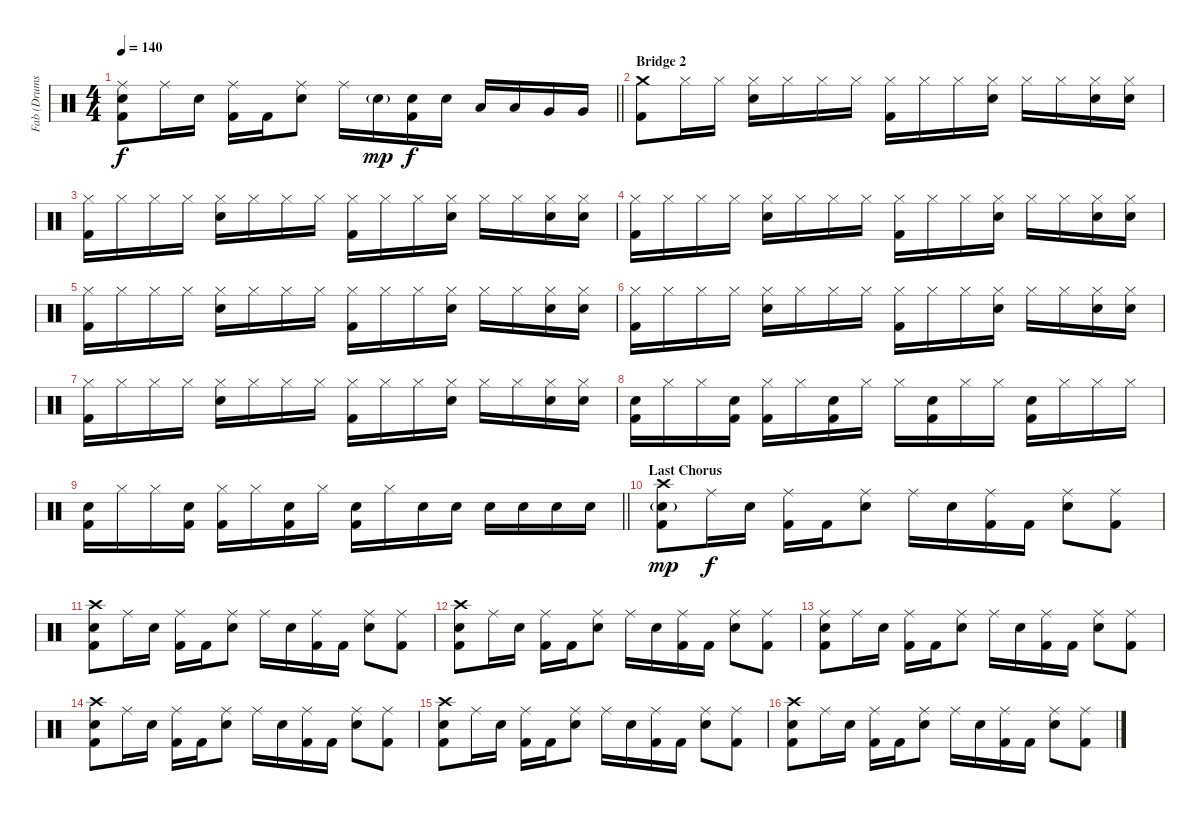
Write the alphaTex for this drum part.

\track ("Fab (Drums)" "Fab (Drums") {instrument percussion}
\staff {score}
\articulation defaults
\ts (4 4)
\tempo 140
\clef neutral
\barLineRight lightlight
\ks c
("Ride (middle)" "Snare (hit) 2" "Kick (hit) 2").8{dy f} "Ride (middle)".16 "Snare (hit) 2".16 ("Ride (middle)" "Kick (hit) 2").16 "Kick (hit) 2".16 ("Ride (middle)" "Snare (hit) 2").8 "Ride (middle)".16 "Snare (hit) 2"{g}.16{dy mp} ("Snare (hit) 2" "Kick (hit) 2").16{dy f} "Snare (hit) 2".16 "Low Tom (hit)".16 "Low Tom (hit)".16 "Very Low Tom (hit)".16 "Very Low Tom (hit)".16 |
\section ("" "Bridge 2")
("Crash medium (hit)" "Kick (hit) 2").8 "Hi-Hat (closed)".16 "Hi-Hat (closed)".16 ("Hi-Hat (closed)" "Snare (hit) 2").16 "Hi-Hat (closed)".16 "Hi-Hat (closed)".16 "Hi-Hat (closed)".16 ("Hi-Hat (closed)" "Kick (hit) 2").16 "Hi-Hat (closed)".16 "Hi-Hat (closed)".16 ("Hi-Hat (closed)" "Snare (hit) 2").16 "Hi-Hat (closed)".16 "Hi-Hat (closed)".16 ("Hi-Hat (closed)" "Snare (hit) 2").16 ("Hi-Hat (closed)" "Snare (hit) 2").16 |
("Hi-Hat (closed)" "Kick (hit) 2").16 "Hi-Hat (closed)".16 "Hi-Hat (closed)".16 "Hi-Hat (closed)".16 ("Hi-Hat (closed)" "Snare (hit) 2").16 "Hi-Hat (closed)".16 "Hi-Hat (closed)".16 "Hi-Hat (closed)".16 ("Hi-Hat (closed)" "Kick (hit) 2").16 "Hi-Hat (closed)".16 "Hi-Hat (closed)".16 ("Hi-Hat (closed)" "Snare (hit) 2").16 "Hi-Hat (closed)".16 "Hi-Hat (closed)".16 ("Hi-Hat (closed)" "Snare (hit) 2").16 ("Hi-Hat (closed)" "Snare (hit) 2").16 |
("Hi-Hat (closed)" "Kick (hit) 2").16 "Hi-Hat (closed)".16 "Hi-Hat (closed)".16 "Hi-Hat (closed)".16 ("Hi-Hat (closed)" "Snare (hit) 2").16 "Hi-Hat (closed)".16 "Hi-Hat (closed)".16 "Hi-Hat (closed)".16 ("Hi-Hat (closed)" "Kick (hit) 2").16 "Hi-Hat (closed)".16 "Hi-Hat (closed)".16 ("Hi-Hat (closed)" "Snare (hit) 2").16 "Hi-Hat (closed)".16 "Hi-Hat (closed)".16 ("Hi-Hat (closed)" "Snare (hit) 2").16 ("Hi-Hat (closed)" "Snare (hit) 2").16 |
("Hi-Hat (closed)" "Kick (hit) 2").16 "Hi-Hat (closed)".16 "Hi-Hat (closed)".16 "Hi-Hat (closed)".16 ("Hi-Hat (closed)" "Snare (hit) 2").16 "Hi-Hat (closed)".16 "Hi-Hat (closed)".16 "Hi-Hat (closed)".16 ("Hi-Hat (closed)" "Kick (hit) 2").16 "Hi-Hat (closed)".16 "Hi-Hat (closed)".16 ("Hi-Hat (closed)" "Snare (hit) 2").16 "Hi-Hat (closed)".16 "Hi-Hat (closed)".16 ("Hi-Hat (closed)" "Snare (hit) 2").16 ("Hi-Hat (closed)" "Snare (hit) 2").16 |
("Hi-Hat (closed)" "Kick (hit) 2").16 "Hi-Hat (closed)".16 "Hi-Hat (closed)".16 "Hi-Hat (closed)".16 ("Hi-Hat (closed)" "Snare (hit) 2").16 "Hi-Hat (closed)".16 "Hi-Hat (closed)".16 "Hi-Hat (closed)".16 ("Hi-Hat (closed)" "Kick (hit) 2").16 "Hi-Hat (closed)".16 "Hi-Hat (closed)".16 ("Hi-Hat (closed)" "Snare (hit) 2").16 "Hi-Hat (closed)".16 "Hi-Hat (closed)".16 ("Hi-Hat (closed)" "Snare (hit) 2").16 ("Hi-Hat (closed)" "Snare (hit) 2").16 |
("Hi-Hat (closed)" "Kick (hit) 2").16 "Hi-Hat (closed)".16 "Hi-Hat (closed)".16 "Hi-Hat (closed)".16 ("Hi-Hat (closed)" "Snare (hit) 2").16 "Hi-Hat (closed)".16 "Hi-Hat (closed)".16 "Hi-Hat (closed)".16 ("Hi-Hat (closed)" "Kick (hit) 2").16 "Hi-Hat (closed)".16 "Hi-Hat (closed)".16 ("Hi-Hat (closed)" "Snare (hit) 2").16 "Hi-Hat (closed)".16 "Hi-Hat (closed)".16 ("Hi-Hat (closed)" "Snare (hit) 2").16 ("Hi-Hat (closed)" "Snare (hit) 2").16 |
("Snare (hit) 2" "Kick (hit) 2").16 "Hi-Hat (closed)".16 "Hi-Hat (closed)".16 ("Snare (hit) 2" "Kick (hit) 2").16 ("Hi-Hat (closed)" "Kick (hit) 2").16 "Hi-Hat (closed)".16 ("Snare (hit) 2" "Kick (hit) 2").16 "Hi-Hat (closed)".16 "Hi-Hat (closed)".16 ("Snare (hit) 2" "Kick (hit) 2").16 "Hi-Hat (closed)".16 "Hi-Hat (closed)".16 ("Snare (hit) 2" "Kick (hit) 2").16 "Hi-Hat (closed)".16 "Hi-Hat (closed)".16 "Hi-Hat (closed)".16 |
\barLineRight lightlight
("Snare (hit) 2" "Kick (hit) 2").16 "Hi-Hat (closed)".16 "Hi-Hat (closed)".16 ("Snare (hit) 2" "Kick (hit) 2").16 ("Hi-Hat (closed)" "Kick (hit) 2").16 "Hi-Hat (closed)".16 ("Snare (hit) 2" "Kick (hit) 2").16 "Hi-Hat (closed)".16 ("Snare (hit) 2" "Kick (hit) 2").16 "Hi-Hat (closed)".16 "Snare (hit) 2".16 "Snare (hit) 2".16 "Snare (hit) 2".16 "Snare (hit) 2".16 "Snare (hit) 2".16 "Snare (hit) 2".16 |
\section ("" "Last Chorus")
("Crash high (hit)" "Snare (hit) 2"{g} "Kick (hit) 2").8{dy mp} "Ride (middle)".16{dy f} "Snare (hit) 2".16 ("Ride (middle)" "Kick (hit) 2").16 "Kick (hit) 2".16 ("Ride (middle)" "Snare (hit) 2").8 "Ride (middle)".16 "Snare (hit) 2".16 ("Ride (middle)" "Kick (hit) 2").16 "Kick (hit) 2".16 ("Ride (middle)" "Snare (hit) 2").8 ("Ride (middle)" "Kick (hit) 2").8 |
("Crash high (hit)" "Snare (hit) 2" "Kick (hit) 2").8 "Ride (middle)".16 "Snare (hit) 2".16 ("Ride (middle)" "Kick (hit) 2").16 "Kick (hit) 2".16 ("Ride (middle)" "Snare (hit) 2").8 "Ride (middle)".16 "Snare (hit) 2".16 ("Ride (middle)" "Kick (hit) 2").16 "Kick (hit) 2".16 ("Ride (middle)" "Snare (hit) 2").8 ("Ride (middle)" "Kick (hit) 2").8 |
("Crash high (hit)" "Snare (hit) 2" "Kick (hit) 2").8 "Ride (middle)".16 "Snare (hit) 2".16 ("Ride (middle)" "Kick (hit) 2").16 "Kick (hit) 2".16 ("Ride (middle)" "Snare (hit) 2").8 "Ride (middle)".16 "Snare (hit) 2".16 ("Ride (middle)" "Kick (hit) 2").16 "Kick (hit) 2".16 ("Ride (middle)" "Snare (hit) 2").8 ("Ride (middle)" "Kick (hit) 2").8 |
("Ride (middle)" "Snare (hit) 2" "Kick (hit) 2").8 "Ride (middle)".16 "Snare (hit) 2".16 ("Ride (middle)" "Kick (hit) 2").16 "Kick (hit) 2".16 ("Ride (middle)" "Snare (hit) 2").8 "Ride (middle)".16 "Snare (hit) 2".16 ("Ride (middle)" "Kick (hit) 2").16 "Kick (hit) 2".16 ("Ride (middle)" "Snare (hit) 2").8 ("Ride (middle)" "Kick (hit) 2").8 |
("Crash high (hit)" "Snare (hit) 2" "Kick (hit) 2").8 "Ride (middle)".16 "Snare (hit) 2".16 ("Ride (middle)" "Kick (hit) 2").16 "Kick (hit) 2".16 ("Ride (middle)" "Snare (hit) 2").8 "Ride (middle)".16 "Snare (hit) 2".16 ("Ride (middle)" "Kick (hit) 2").16 "Kick (hit) 2".16 ("Ride (middle)" "Snare (hit) 2").8 ("Ride (middle)" "Kick (hit) 2").8 |
("Crash high (hit)" "Snare (hit) 2" "Kick (hit) 2").8 "Ride (middle)".16 "Snare (hit) 2".16 ("Ride (middle)" "Kick (hit) 2").16 "Kick (hit) 2".16 ("Ride (middle)" "Snare (hit) 2").8 "Ride (middle)".16 "Snare (hit) 2".16 ("Ride (middle)" "Kick (hit) 2").16 "Kick (hit) 2".16 ("Ride (middle)" "Snare (hit) 2").8 ("Ride (middle)" "Kick (hit) 2").8 |
("Crash high (hit)" "Snare (hit) 2" "Kick (hit) 2").8 "Ride (middle)".16 "Snare (hit) 2".16 ("Ride (middle)" "Kick (hit) 2").16 "Kick (hit) 2".16 ("Ride (middle)" "Snare (hit) 2").8 "Ride (middle)".16 "Snare (hit) 2".16 ("Ride (middle)" "Kick (hit) 2").16 "Kick (hit) 2".16 ("Ride (middle)" "Snare (hit) 2").8 ("Ride (middle)" "Kick (hit) 2").8
